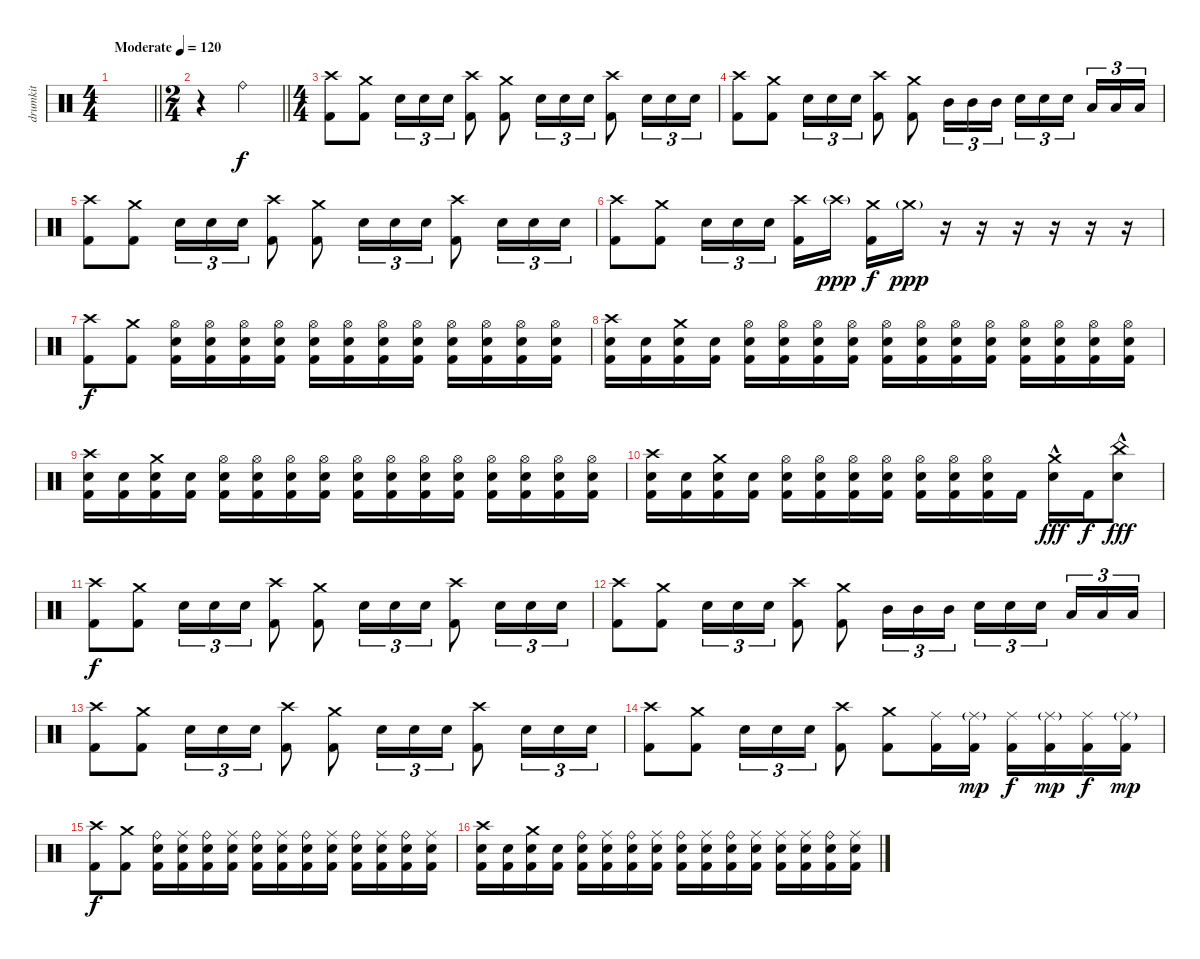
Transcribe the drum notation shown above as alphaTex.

\track ("drumkit" "drumkit") {instrument percussion}
\staff {score}
\articulation defaults
\ts (4 4)
\section ("" "")
\tempo (120 "Moderate")
\clef neutral
\barLineRight lightlight
\ks c
|
\ts (2 4)
\section ("" "")
\barLineRight lightlight
r.4 "Ride (bell)".4 |
\ts (4 4)
\section ("" "")
("Crash high (hit)" "Kick (hit) 2").8 ("Crash medium (hit)" "Kick (hit) 2").8 "Electric Snare (hit)".16{tu (3 2)} "Electric Snare (hit)".16{tu (3 2)} "Electric Snare (hit)".16{tu (3 2)} ("Crash high (hit)" "Kick (hit) 2").8 ("Crash medium (hit)" "Kick (hit) 2").8 "Electric Snare (hit)".16{tu (3 2)} "Electric Snare (hit)".16{tu (3 2)} "Electric Snare (hit)".16{tu (3 2)} ("Crash high (hit)" "Kick (hit) 2").8 "Electric Snare (hit)".16{tu (3 2)} "Electric Snare (hit)".16{tu (3 2)} "Electric Snare (hit)".16{tu (3 2)} |
("Crash high (hit)" "Kick (hit) 2").8 ("Crash medium (hit)" "Kick (hit) 2").8 "Electric Snare (hit)".16{tu (3 2)} "Electric Snare (hit)".16{tu (3 2)} "Electric Snare (hit)".16{tu (3 2)} ("Crash high (hit)" "Kick (hit) 2").8 ("Crash medium (hit)" "Kick (hit) 2").8 "Mid Tom (hit)".16{tu (3 2)} "Mid Tom (hit)".16{tu (3 2)} "Mid Tom (hit)".16{tu (3 2)} "Electric Snare (hit)".16{tu (3 2)} "Electric Snare (hit)".16{tu (3 2)} "Electric Snare (hit)".16{tu (3 2) beam splitsecondary} "Low Tom (hit)".16{tu (3 2)} "Low Tom (hit)".16{tu (3 2)} "Low Tom (hit)".16{tu (3 2)} |
("Crash high (hit)" "Kick (hit) 2").8 ("Crash medium (hit)" "Kick (hit) 2").8 "Electric Snare (hit)".16{tu (3 2)} "Electric Snare (hit)".16{tu (3 2)} "Electric Snare (hit)".16{tu (3 2)} ("Crash high (hit)" "Kick (hit) 2").8 ("Crash medium (hit)" "Kick (hit) 2").8 "Electric Snare (hit)".16{tu (3 2)} "Electric Snare (hit)".16{tu (3 2)} "Electric Snare (hit)".16{tu (3 2)} ("Crash high (hit)" "Kick (hit) 2").8 "Electric Snare (hit)".16{tu (3 2)} "Electric Snare (hit)".16{tu (3 2)} "Electric Snare (hit)".16{tu (3 2)} |
("Crash high (hit)" "Kick (hit) 2").8 ("Crash medium (hit)" "Kick (hit) 2").8 "Electric Snare (hit)".16{tu (3 2)} "Electric Snare (hit)".16{tu (3 2)} "Electric Snare (hit)".16{tu (3 2) beam splitsecondary} ("Crash high (hit)" "Kick (hit) 2").16 "Crash high (hit)"{g}.16{dy ppp} ("Crash medium (hit)" "Kick (hit) 2").16{dy f} "Crash medium (hit)"{g}.16{dy ppp} r.16 r.16 r.16 r.16 r.16 r.16 |
("Crash high (hit)" "Kick (hit) 2").8{dy f} ("Crash medium (hit)" "Kick (hit) 2").8 ("Hi-Hat (open)" "Electric Snare (hit)" "Kick (hit) 2").16 ("Hi-Hat (open)" "Electric Snare (hit)" "Kick (hit) 2").16 ("Hi-Hat (open)" "Electric Snare (hit)" "Kick (hit) 2").16 ("Hi-Hat (open)" "Electric Snare (hit)" "Kick (hit) 2").16 ("Hi-Hat (open)" "Electric Snare (hit)" "Kick (hit) 2").16 ("Hi-Hat (open)" "Electric Snare (hit)" "Kick (hit) 2").16 ("Hi-Hat (open)" "Electric Snare (hit)" "Kick (hit) 2").16 ("Hi-Hat (open)" "Electric Snare (hit)" "Kick (hit) 2").16 ("Hi-Hat (open)" "Electric Snare (hit)" "Kick (hit) 2").16 ("Hi-Hat (open)" "Electric Snare (hit)" "Kick (hit) 2").16 ("Hi-Hat (open)" "Electric Snare (hit)" "Kick (hit) 2").16 ("Hi-Hat (open)" "Electric Snare (hit)" "Kick (hit) 2").16 |
("Crash high (hit)" "Electric Snare (hit)" "Kick (hit) 2").16 ("Electric Snare (hit)" "Kick (hit) 2").16 ("Crash medium (hit)" "Electric Snare (hit)" "Kick (hit) 2").16 ("Electric Snare (hit)" "Kick (hit) 2").16 ("Hi-Hat (open)" "Electric Snare (hit)" "Kick (hit) 2").16 ("Hi-Hat (open)" "Electric Snare (hit)" "Kick (hit) 2").16 ("Hi-Hat (open)" "Electric Snare (hit)" "Kick (hit) 2").16 ("Hi-Hat (open)" "Electric Snare (hit)" "Kick (hit) 2").16 ("Hi-Hat (open)" "Electric Snare (hit)" "Kick (hit) 2").16 ("Hi-Hat (open)" "Electric Snare (hit)" "Kick (hit) 2").16 ("Hi-Hat (open)" "Electric Snare (hit)" "Kick (hit) 2").16 ("Hi-Hat (open)" "Electric Snare (hit)" "Kick (hit) 2").16 ("Hi-Hat (open)" "Electric Snare (hit)" "Kick (hit) 2").16 ("Hi-Hat (open)" "Electric Snare (hit)" "Kick (hit) 2").16 ("Hi-Hat (open)" "Electric Snare (hit)" "Kick (hit) 2").16 ("Hi-Hat (open)" "Electric Snare (hit)" "Kick (hit) 2").16 |
("Crash high (hit)" "Electric Snare (hit)" "Kick (hit) 2").16 ("Electric Snare (hit)" "Kick (hit) 2").16 ("Crash medium (hit)" "Electric Snare (hit)" "Kick (hit) 2").16 ("Electric Snare (hit)" "Kick (hit) 2").16 ("Hi-Hat (open)" "Electric Snare (hit)" "Kick (hit) 2").16 ("Hi-Hat (open)" "Electric Snare (hit)" "Kick (hit) 2").16 ("Hi-Hat (open)" "Electric Snare (hit)" "Kick (hit) 2").16 ("Hi-Hat (open)" "Electric Snare (hit)" "Kick (hit) 2").16 ("Hi-Hat (open)" "Electric Snare (hit)" "Kick (hit) 2").16 ("Hi-Hat (open)" "Electric Snare (hit)" "Kick (hit) 2").16 ("Hi-Hat (open)" "Electric Snare (hit)" "Kick (hit) 2").16 ("Hi-Hat (open)" "Electric Snare (hit)" "Kick (hit) 2").16 ("Hi-Hat (open)" "Electric Snare (hit)" "Kick (hit) 2").16 ("Hi-Hat (open)" "Electric Snare (hit)" "Kick (hit) 2").16 ("Hi-Hat (open)" "Electric Snare (hit)" "Kick (hit) 2").16 ("Hi-Hat (open)" "Electric Snare (hit)" "Kick (hit) 2").16 |
("Crash high (hit)" "Electric Snare (hit)" "Kick (hit) 2").16 ("Electric Snare (hit)" "Kick (hit) 2").16 ("Crash medium (hit)" "Electric Snare (hit)" "Kick (hit) 2").16 ("Electric Snare (hit)" "Kick (hit) 2").16 ("Hi-Hat (open)" "Electric Snare (hit)" "Kick (hit) 2").16 ("Hi-Hat (open)" "Electric Snare (hit)" "Kick (hit) 2").16 ("Hi-Hat (open)" "Electric Snare (hit)" "Kick (hit) 2").16 ("Hi-Hat (open)" "Electric Snare (hit)" "Kick (hit) 2").16 ("Hi-Hat (open)" "Electric Snare (hit)" "Kick (hit) 2").16 ("Hi-Hat (open)" "Electric Snare (hit)" "Kick (hit) 2").16 ("Hi-Hat (open)" "Electric Snare (hit)" "Kick (hit) 2").16 "Kick (hit) 2".16 ("Crash medium (hit)" "Electric Snare (hit)"{hac}).16{dy fff} "Kick (hit) 2".16{dy f} ("China (hit)" "Electric Snare (hit)"{hac}).8{dy fff} |
("Crash high (hit)" "Kick (hit) 2").8{dy f} ("Crash medium (hit)" "Kick (hit) 2").8 "Electric Snare (hit)".16{tu (3 2)} "Electric Snare (hit)".16{tu (3 2)} "Electric Snare (hit)".16{tu (3 2)} ("Crash high (hit)" "Kick (hit) 2").8 ("Crash medium (hit)" "Kick (hit) 2").8 "Electric Snare (hit)".16{tu (3 2)} "Electric Snare (hit)".16{tu (3 2)} "Electric Snare (hit)".16{tu (3 2)} ("Crash high (hit)" "Kick (hit) 2").8 "Electric Snare (hit)".16{tu (3 2)} "Electric Snare (hit)".16{tu (3 2)} "Electric Snare (hit)".16{tu (3 2)} |
("Crash high (hit)" "Kick (hit) 2").8 ("Crash medium (hit)" "Kick (hit) 2").8 "Electric Snare (hit)".16{tu (3 2)} "Electric Snare (hit)".16{tu (3 2)} "Electric Snare (hit)".16{tu (3 2)} ("Crash high (hit)" "Kick (hit) 2").8 ("Crash medium (hit)" "Kick (hit) 2").8 "Mid Tom (hit)".16{tu (3 2)} "Mid Tom (hit)".16{tu (3 2)} "Mid Tom (hit)".16{tu (3 2)} "Electric Snare (hit)".16{tu (3 2)} "Electric Snare (hit)".16{tu (3 2)} "Electric Snare (hit)".16{tu (3 2) beam splitsecondary} "Low Tom (hit)".16{tu (3 2)} "Low Tom (hit)".16{tu (3 2)} "Low Tom (hit)".16{tu (3 2)} |
("Crash high (hit)" "Kick (hit) 2").8 ("Crash medium (hit)" "Kick (hit) 2").8 "Electric Snare (hit)".16{tu (3 2)} "Electric Snare (hit)".16{tu (3 2)} "Electric Snare (hit)".16{tu (3 2)} ("Crash high (hit)" "Kick (hit) 2").8 ("Crash medium (hit)" "Kick (hit) 2").8 "Electric Snare (hit)".16{tu (3 2)} "Electric Snare (hit)".16{tu (3 2)} "Electric Snare (hit)".16{tu (3 2)} ("Crash high (hit)" "Kick (hit) 2").8 "Electric Snare (hit)".16{tu (3 2)} "Electric Snare (hit)".16{tu (3 2)} "Electric Snare (hit)".16{tu (3 2)} |
("Crash high (hit)" "Kick (hit) 2").8 ("Crash medium (hit)" "Kick (hit) 2").8 "Electric Snare (hit)".16{tu (3 2)} "Electric Snare (hit)".16{tu (3 2)} "Electric Snare (hit)".16{tu (3 2)} ("Crash high (hit)" "Kick (hit) 2").8 ("Crash medium (hit)" "Kick (hit) 2").8 ("Ride (middle)" "Kick (hit) 2").16 ("Ride (middle)"{g} "Kick (hit) 2").16{dy mp} ("Ride (middle)" "Kick (hit) 2").16{dy f} ("Ride (middle)"{g} "Kick (hit) 2").16{dy mp} ("Ride (middle)" "Kick (hit) 2").16{dy f} ("Ride (middle)"{g} "Kick (hit) 2").16{dy mp} |
("Crash high (hit)" "Kick (hit) 2").8{dy f} ("Crash medium (hit)" "Kick (hit) 2").8 ("Ride (bell)" "Electric Snare (hit)" "Kick (hit) 2").16 ("Ride (middle)" "Electric Snare (hit)" "Kick (hit) 2").16 ("Ride (bell)" "Electric Snare (hit)" "Kick (hit) 2").16 ("Ride (middle)" "Electric Snare (hit)" "Kick (hit) 2").16 ("Ride (bell)" "Electric Snare (hit)" "Kick (hit) 2").16 ("Ride (middle)" "Electric Snare (hit)" "Kick (hit) 2").16 ("Ride (bell)" "Electric Snare (hit)" "Kick (hit) 2").16 ("Ride (middle)" "Electric Snare (hit)" "Kick (hit) 2").16 ("Ride (bell)" "Electric Snare (hit)" "Kick (hit) 2").16 ("Ride (middle)" "Electric Snare (hit)" "Kick (hit) 2").16 ("Ride (bell)" "Electric Snare (hit)" "Kick (hit) 2").16 ("Ride (middle)" "Electric Snare (hit)" "Kick (hit) 2").16 |
("Crash high (hit)" "Electric Snare (hit)" "Kick (hit) 2").16 ("Electric Snare (hit)" "Kick (hit) 2").16 ("Crash medium (hit)" "Electric Snare (hit)" "Kick (hit) 2").16 ("Electric Snare (hit)" "Kick (hit) 2").16 ("Ride (bell)" "Electric Snare (hit)" "Kick (hit) 2").16 ("Ride (middle)" "Electric Snare (hit)" "Kick (hit) 2").16 ("Ride (bell)" "Electric Snare (hit)" "Kick (hit) 2").16 ("Ride (middle)" "Electric Snare (hit)" "Kick (hit) 2").16 ("Ride (bell)" "Electric Snare (hit)" "Kick (hit) 2").16 ("Ride (middle)" "Electric Snare (hit)" "Kick (hit) 2").16 ("Ride (bell)" "Electric Snare (hit)" "Kick (hit) 2").16 ("Ride (middle)" "Electric Snare (hit)" "Kick (hit) 2").16 ("Ride (middle)" "Electric Snare (hit)" "Kick (hit) 2").16 ("Ride (middle)" "Electric Snare (hit)" "Kick (hit) 2").16 ("Ride (bell)" "Electric Snare (hit)" "Kick (hit) 2").16 ("Ride (middle)" "Electric Snare (hit)" "Kick (hit) 2").16
